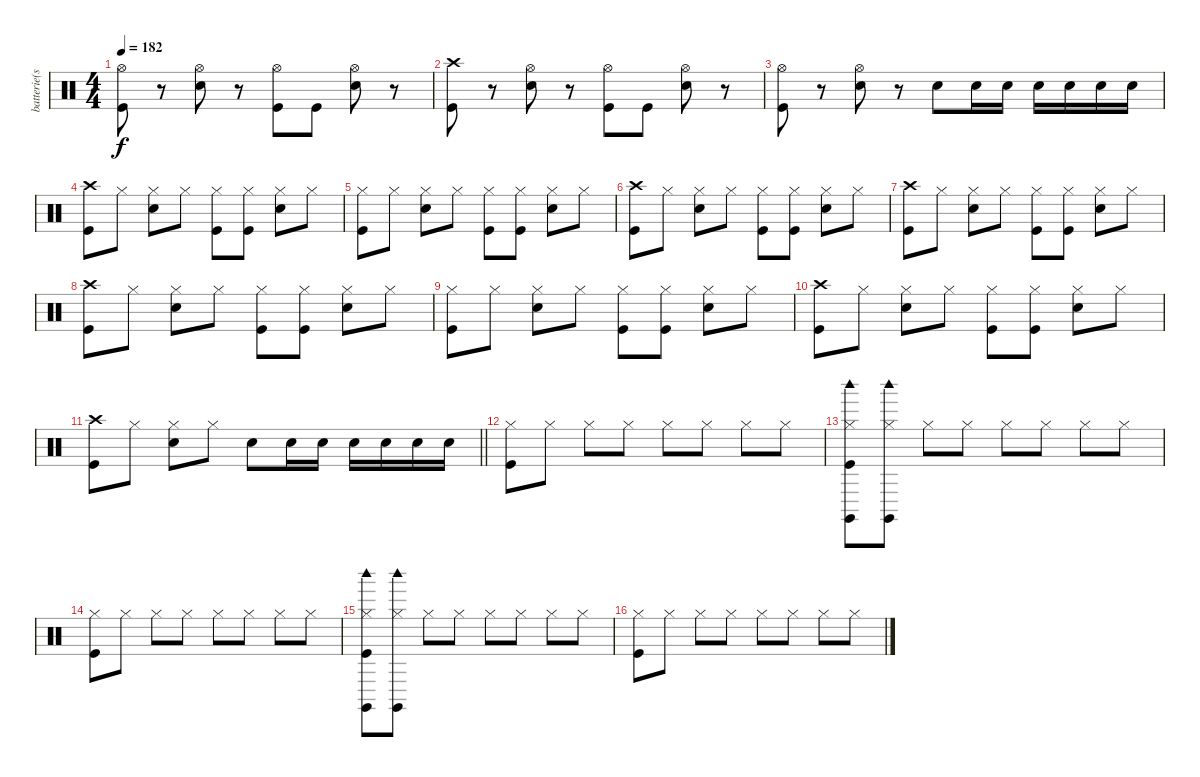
\track ("batterie(scott)" "batterie(s") {instrument percussion}
\staff {score}
\articulation defaults
\ts (4 4)
\tempo 182
\clef neutral
\ks c
("Hi-Hat (open)" "Kick (hit)").8{dy f} r.8 ("Hi-Hat (open)" "Snare (hit) 2").8 r.8 ("Hi-Hat (open)" "Kick (hit)").8 "Kick (hit)".8 ("Hi-Hat (open)" "Snare (hit) 2").8 r.8 |
("Crash high (hit)" "Kick (hit)").8 r.8 ("Hi-Hat (open)" "Snare (hit) 2").8 r.8 ("Hi-Hat (open)" "Kick (hit)").8 "Kick (hit)".8 ("Hi-Hat (open)" "Snare (hit) 2").8 r.8 |
("Hi-Hat (open)" "Kick (hit)").8 r.8 ("Hi-Hat (open)" "Snare (hit) 2").8 r.8 "Snare (hit) 2".8 "Snare (hit) 2".16 "Snare (hit) 2".16 "Snare (hit) 2".16 "Snare (hit) 2".16 "Snare (hit) 2".16 "Snare (hit) 2".16 |
("Crash high (hit)" "Kick (hit)").8 "Hi-Hat (closed)".8 ("Hi-Hat (closed)" "Snare (hit) 2").8 "Hi-Hat (closed)".8 ("Hi-Hat (closed)" "Kick (hit)").8 ("Hi-Hat (closed)" "Kick (hit)").8 ("Hi-Hat (closed)" "Snare (hit) 2").8 "Hi-Hat (closed)".8 |
("Hi-Hat (closed)" "Kick (hit)").8 "Hi-Hat (closed)".8 ("Hi-Hat (closed)" "Snare (hit) 2").8 "Hi-Hat (closed)".8 ("Hi-Hat (closed)" "Kick (hit)").8 ("Hi-Hat (closed)" "Kick (hit)").8 ("Hi-Hat (closed)" "Snare (hit) 2").8 "Hi-Hat (closed)".8 |
("Crash high (hit)" "Kick (hit)").8 "Hi-Hat (closed)".8 ("Hi-Hat (closed)" "Snare (hit) 2").8 "Hi-Hat (closed)".8 ("Hi-Hat (closed)" "Kick (hit)").8 ("Hi-Hat (closed)" "Kick (hit)").8 ("Hi-Hat (closed)" "Snare (hit) 2").8 "Hi-Hat (closed)".8 |
("Crash high (hit)" "Kick (hit)").8 "Hi-Hat (closed)".8 ("Hi-Hat (closed)" "Snare (hit) 2").8 "Hi-Hat (closed)".8 ("Hi-Hat (closed)" "Kick (hit)").8 ("Hi-Hat (closed)" "Kick (hit)").8 ("Hi-Hat (closed)" "Snare (hit) 2").8 "Hi-Hat (closed)".8 |
("Crash high (hit)" "Kick (hit)").8 "Hi-Hat (closed)".8 ("Hi-Hat (closed)" "Snare (hit) 2").8 "Hi-Hat (closed)".8 ("Hi-Hat (closed)" "Kick (hit)").8 ("Hi-Hat (closed)" "Kick (hit)").8 ("Hi-Hat (closed)" "Snare (hit) 2").8 "Hi-Hat (closed)".8 |
("Hi-Hat (closed)" "Kick (hit)").8 "Hi-Hat (closed)".8 ("Hi-Hat (closed)" "Snare (hit) 2").8 "Hi-Hat (closed)".8 ("Hi-Hat (closed)" "Kick (hit)").8 ("Hi-Hat (closed)" "Kick (hit)").8 ("Hi-Hat (closed)" "Snare (hit) 2").8 "Hi-Hat (closed)".8 |
("Crash high (hit)" "Kick (hit)").8 "Hi-Hat (closed)".8 ("Hi-Hat (closed)" "Snare (hit) 2").8 "Hi-Hat (closed)".8 ("Hi-Hat (closed)" "Kick (hit)").8 ("Hi-Hat (closed)" "Kick (hit)").8 ("Hi-Hat (closed)" "Snare (hit) 2").8 "Hi-Hat (closed)".8 |
\barLineRight lightlight
("Crash high (hit)" "Kick (hit)").8 "Hi-Hat (closed)".8 ("Hi-Hat (closed)" "Snare (hit) 2").8 "Hi-Hat (closed)".8 "Snare (hit) 2".8 "Snare (hit) 2".16 "Snare (hit) 2".16 "Snare (hit) 2".16 "Snare (hit) 2".16 "Snare (hit) 2".16 "Snare (hit) 2".16 |
("Hi-Hat (closed)" "Kick (hit)").8 "Hi-Hat (closed)".8 "Hi-Hat (closed)".8 "Hi-Hat (closed)".8 "Hi-Hat (closed)".8 "Hi-Hat (closed)".8 "Hi-Hat (closed)".8 "Hi-Hat (closed)".8 |
("Hi-Hat (closed)" "Claves (hit)" "Woodblock high (hit)" "Kick (hit)").8 ("Hi-Hat (closed)" "Claves (hit)" "Woodblock high (hit)").8 "Hi-Hat (closed)".8 "Hi-Hat (closed)".8 "Hi-Hat (closed)".8 "Hi-Hat (closed)".8 "Hi-Hat (closed)".8 "Hi-Hat (closed)".8 |
("Hi-Hat (closed)" "Kick (hit)").8 "Hi-Hat (closed)".8 "Hi-Hat (closed)".8 "Hi-Hat (closed)".8 "Hi-Hat (closed)".8 "Hi-Hat (closed)".8 "Hi-Hat (closed)".8 "Hi-Hat (closed)".8 |
("Hi-Hat (closed)" "Claves (hit)" "Woodblock high (hit)" "Kick (hit)").8 ("Hi-Hat (closed)" "Claves (hit)" "Woodblock high (hit)").8 "Hi-Hat (closed)".8 "Hi-Hat (closed)".8 "Hi-Hat (closed)".8 "Hi-Hat (closed)".8 "Hi-Hat (closed)".8 "Hi-Hat (closed)".8 |
("Hi-Hat (closed)" "Kick (hit)").8 "Hi-Hat (closed)".8 "Hi-Hat (closed)".8 "Hi-Hat (closed)".8 "Hi-Hat (closed)".8 "Hi-Hat (closed)".8 "Hi-Hat (closed)".8 "Hi-Hat (closed)".8
